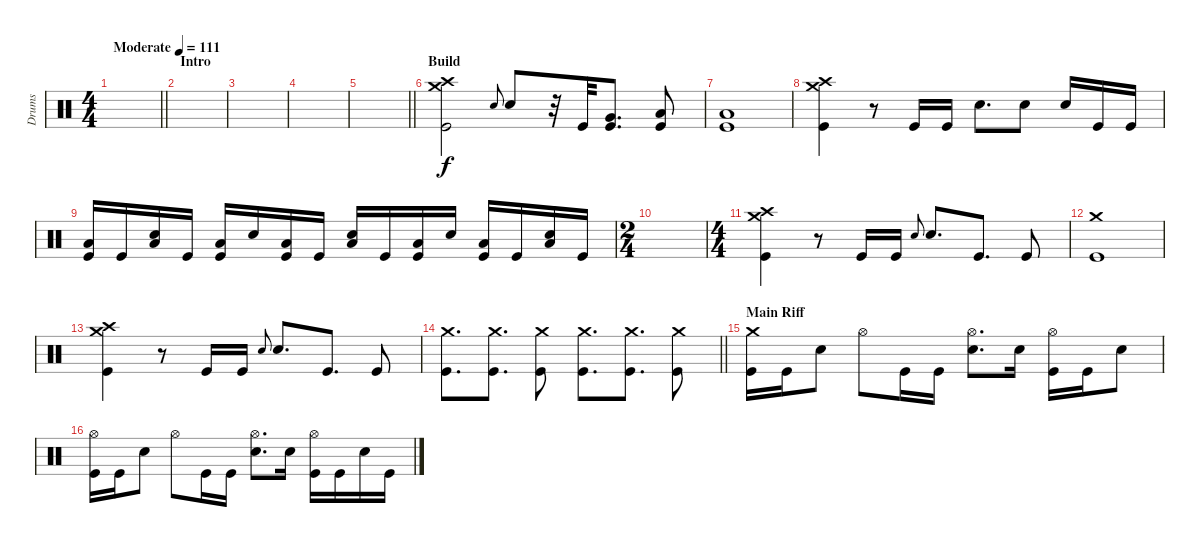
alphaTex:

\track ("Drums" "Drums") {instrument percussion}
\staff {score}
\articulation defaults
\ts (4 4)
\tempo (111 "Moderate")
\clef neutral
\barLineRight lightlight
\ks c
|
\section ("" "Intro")
|
|
|
\barLineRight lightlight
|
\section ("" "Build")
("Crash medium (hit)" "Crash high (hit)" "Kick (hit)").2 "Electric Snare (hit)".8{gr onbeat} "Electric Snare (hit)".8 r.32 "Kick (hit)".32 ("Very Low Tom (hit)" "Kick (hit)").8{d} ("Low Floor Tom (hit)" "Kick (hit)").8 |
("Low Floor Tom (hit)" "Kick (hit)").1 |
("Crash medium (hit)" "Crash high (hit)" "Kick (hit)").4 r.8 "Kick (hit)".16 "Kick (hit)".16 "Electric Snare (hit)".8{d} "Electric Snare (hit)".8 "Electric Snare (hit)".16 "Kick (hit)".16 "Kick (hit)".16 |
("Low Floor Tom (hit)" "Kick (hit)").16 "Kick (hit)".16 ("Low Floor Tom (hit)" "Electric Snare (hit)").16 "Kick (hit)".16 ("Low Floor Tom (hit)" "Kick (hit)").16 "Electric Snare (hit)".16 ("Low Floor Tom (hit)" "Kick (hit)").16 "Kick (hit)".16 ("Low Floor Tom (hit)" "Electric Snare (hit)").16 "Kick (hit)".16 ("Low Floor Tom (hit)" "Kick (hit)").16 "Electric Snare (hit)".16 ("Low Floor Tom (hit)" "Kick (hit)").16 "Kick (hit)".16 ("Low Floor Tom (hit)" "Electric Snare (hit)").16 "Kick (hit)".16 |
\ts (2 4)
|
\ts (4 4)
("Crash medium (hit)" "Crash high (hit)" "Kick (hit)").4 r.8 "Kick (hit)".16 "Kick (hit)".16 "Electric Snare (hit)".8{gr onbeat} "Electric Snare (hit)".8{d} "Kick (hit)".8{d} "Kick (hit)".8 |
("Crash medium (hit)" "Kick (hit)").1 |
("Crash medium (hit)" "Crash high (hit)" "Kick (hit)").4 r.8 "Kick (hit)".16 "Kick (hit)".16 "Electric Snare (hit)".8{gr onbeat} "Electric Snare (hit)".8{d} "Kick (hit)".8{d} "Kick (hit)".8 |
\barLineRight lightlight
("Crash medium (hit)" "Kick (hit)").8{d} ("Crash medium (hit)" "Kick (hit)").8{d} ("Crash medium (hit)" "Kick (hit)").8 ("Crash medium (hit)" "Kick (hit)").8{d} ("Crash medium (hit)" "Kick (hit)").8{d} ("Crash medium (hit)" "Kick (hit)").8 |
\section ("" "Main Riff")
("Crash medium (hit)" "Kick (hit)").16 "Kick (hit)".16 "Electric Snare (hit)".8 "Hi-Hat (open)".8 "Kick (hit)".16 "Kick (hit)".16 ("Hi-Hat (open)" "Electric Snare (hit)").8{d} "Electric Snare (hit)".16 ("Hi-Hat (open)" "Kick (hit)").16 "Kick (hit)".16 "Electric Snare (hit)".8 |
("Hi-Hat (open)" "Kick (hit)").16 "Kick (hit)".16 "Electric Snare (hit)".8 "Hi-Hat (open)".8 "Kick (hit)".16 "Kick (hit)".16 ("Hi-Hat (open)" "Electric Snare (hit)").8{d} "Electric Snare (hit)".16 ("Hi-Hat (open)" "Kick (hit)").16 "Kick (hit)".16 "Electric Snare (hit)".16 "Kick (hit)".16
